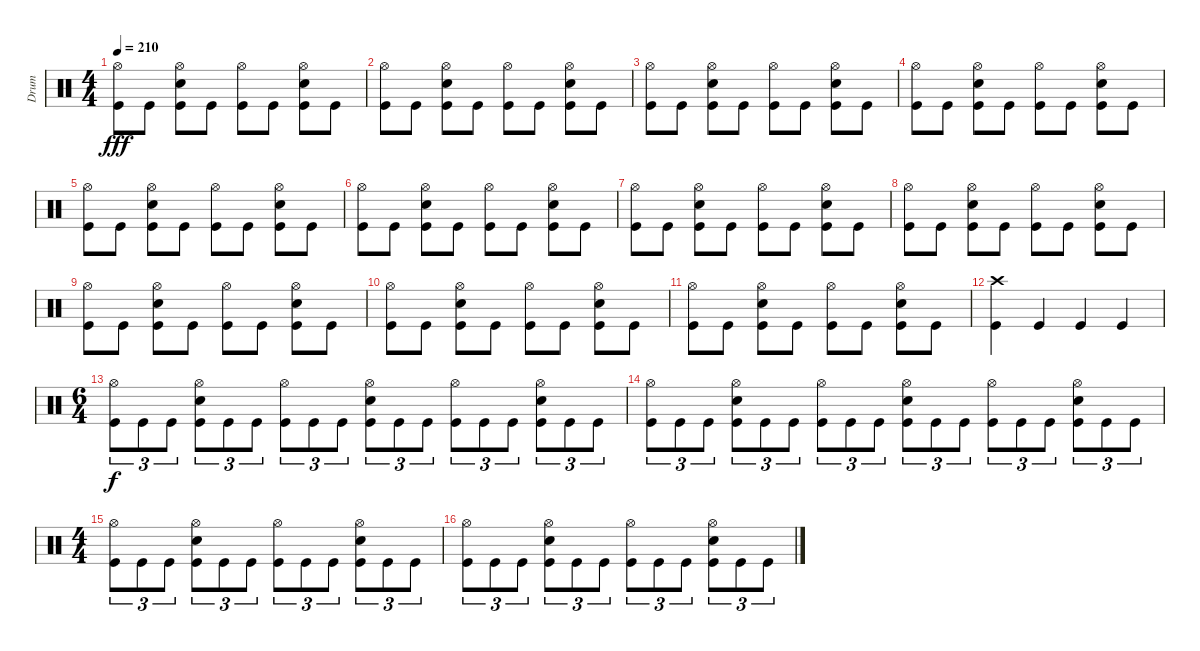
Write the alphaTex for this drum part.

\track ("Drum" "Drum") {instrument percussion}
\staff {score}
\articulation defaults
\ts (4 4)
\tempo 210
\clef neutral
\ks c
("Hi-Hat (open)" "Kick (hit)").8{dy fff} "Kick (hit)".8 ("Hi-Hat (open)" "Snare (hit) 2" "Kick (hit)").8 "Kick (hit)".8 ("Hi-Hat (open)" "Kick (hit)").8 "Kick (hit)".8 ("Hi-Hat (open)" "Snare (hit) 2" "Kick (hit)").8 "Kick (hit)".8 |
("Hi-Hat (open)" "Kick (hit)").8 "Kick (hit)".8 ("Hi-Hat (open)" "Snare (hit) 2" "Kick (hit)").8 "Kick (hit)".8 ("Hi-Hat (open)" "Kick (hit)").8 "Kick (hit)".8 ("Hi-Hat (open)" "Snare (hit) 2" "Kick (hit)").8 "Kick (hit)".8 |
("Hi-Hat (open)" "Kick (hit)").8 "Kick (hit)".8 ("Hi-Hat (open)" "Snare (hit) 2" "Kick (hit)").8 "Kick (hit)".8 ("Hi-Hat (open)" "Kick (hit)").8 "Kick (hit)".8 ("Hi-Hat (open)" "Snare (hit) 2" "Kick (hit)").8 "Kick (hit)".8 |
("Hi-Hat (open)" "Kick (hit)").8 "Kick (hit)".8 ("Hi-Hat (open)" "Snare (hit) 2" "Kick (hit)").8 "Kick (hit)".8 ("Hi-Hat (open)" "Kick (hit)").8 "Kick (hit)".8 ("Hi-Hat (open)" "Snare (hit) 2" "Kick (hit)").8 "Kick (hit)".8 |
("Hi-Hat (open)" "Kick (hit)").8 "Kick (hit)".8 ("Hi-Hat (open)" "Snare (hit) 2" "Kick (hit)").8 "Kick (hit)".8 ("Hi-Hat (open)" "Kick (hit)").8 "Kick (hit)".8 ("Hi-Hat (open)" "Snare (hit) 2" "Kick (hit)").8 "Kick (hit)".8 |
("Hi-Hat (open)" "Kick (hit)").8 "Kick (hit)".8 ("Hi-Hat (open)" "Snare (hit) 2" "Kick (hit)").8 "Kick (hit)".8 ("Hi-Hat (open)" "Kick (hit)").8 "Kick (hit)".8 ("Hi-Hat (open)" "Snare (hit) 2" "Kick (hit)").8 "Kick (hit)".8 |
("Hi-Hat (open)" "Kick (hit)").8 "Kick (hit)".8 ("Hi-Hat (open)" "Snare (hit) 2" "Kick (hit)").8 "Kick (hit)".8 ("Hi-Hat (open)" "Kick (hit)").8 "Kick (hit)".8 ("Hi-Hat (open)" "Snare (hit) 2" "Kick (hit)").8 "Kick (hit)".8 |
("Hi-Hat (open)" "Kick (hit)").8 "Kick (hit)".8 ("Hi-Hat (open)" "Snare (hit) 2" "Kick (hit)").8 "Kick (hit)".8 ("Hi-Hat (open)" "Kick (hit)").8 "Kick (hit)".8 ("Hi-Hat (open)" "Snare (hit) 2" "Kick (hit)").8 "Kick (hit)".8 |
("Hi-Hat (open)" "Kick (hit)").8 "Kick (hit)".8 ("Hi-Hat (open)" "Snare (hit) 2" "Kick (hit)").8 "Kick (hit)".8 ("Hi-Hat (open)" "Kick (hit)").8 "Kick (hit)".8 ("Hi-Hat (open)" "Snare (hit) 2" "Kick (hit)").8 "Kick (hit)".8 |
("Hi-Hat (open)" "Kick (hit)").8 "Kick (hit)".8 ("Hi-Hat (open)" "Snare (hit) 2" "Kick (hit)").8 "Kick (hit)".8 ("Hi-Hat (open)" "Kick (hit)").8 "Kick (hit)".8 ("Hi-Hat (open)" "Snare (hit) 2" "Kick (hit)").8 "Kick (hit)".8 |
("Hi-Hat (open)" "Kick (hit)").8 "Kick (hit)".8 ("Hi-Hat (open)" "Snare (hit) 2" "Kick (hit)").8 "Kick (hit)".8 ("Hi-Hat (open)" "Kick (hit)").8 "Kick (hit)".8 ("Hi-Hat (open)" "Snare (hit) 2" "Kick (hit)").8 "Kick (hit)".8 |
("Crash high (hit)" "Kick (hit)").4 "Kick (hit)".4 "Kick (hit)".4 "Kick (hit)".4 |
\ts (6 4)
("Hi-Hat (open)" "Kick (hit)").8{tu (3 2) dy f} "Kick (hit)".8{tu (3 2)} "Kick (hit)".8{tu (3 2)} ("Hi-Hat (open)" "Snare (hit) 2" "Kick (hit)").8{tu (3 2)} "Kick (hit)".8{tu (3 2)} "Kick (hit)".8{tu (3 2)} ("Hi-Hat (open)" "Kick (hit)").8{tu (3 2)} "Kick (hit)".8{tu (3 2)} "Kick (hit)".8{tu (3 2)} ("Hi-Hat (open)" "Snare (hit) 2" "Kick (hit)").8{tu (3 2)} "Kick (hit)".8{tu (3 2)} "Kick (hit)".8{tu (3 2)} ("Hi-Hat (open)" "Kick (hit)").8{tu (3 2)} "Kick (hit)".8{tu (3 2)} "Kick (hit)".8{tu (3 2)} ("Hi-Hat (open)" "Snare (hit) 2" "Kick (hit)").8{tu (3 2)} "Kick (hit)".8{tu (3 2)} "Kick (hit)".8{tu (3 2)} |
("Hi-Hat (open)" "Kick (hit)").8{tu (3 2)} "Kick (hit)".8{tu (3 2)} "Kick (hit)".8{tu (3 2)} ("Hi-Hat (open)" "Snare (hit) 2" "Kick (hit)").8{tu (3 2)} "Kick (hit)".8{tu (3 2)} "Kick (hit)".8{tu (3 2)} ("Hi-Hat (open)" "Kick (hit)").8{tu (3 2)} "Kick (hit)".8{tu (3 2)} "Kick (hit)".8{tu (3 2)} ("Hi-Hat (open)" "Snare (hit) 2" "Kick (hit)").8{tu (3 2)} "Kick (hit)".8{tu (3 2)} "Kick (hit)".8{tu (3 2)} ("Hi-Hat (open)" "Kick (hit)").8{tu (3 2)} "Kick (hit)".8{tu (3 2)} "Kick (hit)".8{tu (3 2)} ("Hi-Hat (open)" "Snare (hit) 2" "Kick (hit)").8{tu (3 2)} "Kick (hit)".8{tu (3 2)} "Kick (hit)".8{tu (3 2)} |
\ts (4 4)
("Hi-Hat (open)" "Kick (hit)").8{tu (3 2)} "Kick (hit)".8{tu (3 2)} "Kick (hit)".8{tu (3 2)} ("Hi-Hat (open)" "Snare (hit) 2" "Kick (hit)").8{tu (3 2)} "Kick (hit)".8{tu (3 2)} "Kick (hit)".8{tu (3 2)} ("Hi-Hat (open)" "Kick (hit)").8{tu (3 2)} "Kick (hit)".8{tu (3 2)} "Kick (hit)".8{tu (3 2)} ("Hi-Hat (open)" "Snare (hit) 2" "Kick (hit)").8{tu (3 2)} "Kick (hit)".8{tu (3 2)} "Kick (hit)".8{tu (3 2)} |
("Hi-Hat (open)" "Kick (hit)").8{tu (3 2)} "Kick (hit)".8{tu (3 2)} "Kick (hit)".8{tu (3 2)} ("Hi-Hat (open)" "Snare (hit) 2" "Kick (hit)").8{tu (3 2)} "Kick (hit)".8{tu (3 2)} "Kick (hit)".8{tu (3 2)} ("Hi-Hat (open)" "Kick (hit)").8{tu (3 2)} "Kick (hit)".8{tu (3 2)} "Kick (hit)".8{tu (3 2)} ("Hi-Hat (open)" "Snare (hit) 2" "Kick (hit)").8{tu (3 2)} "Kick (hit)".8{tu (3 2)} "Kick (hit)".8{tu (3 2)}
